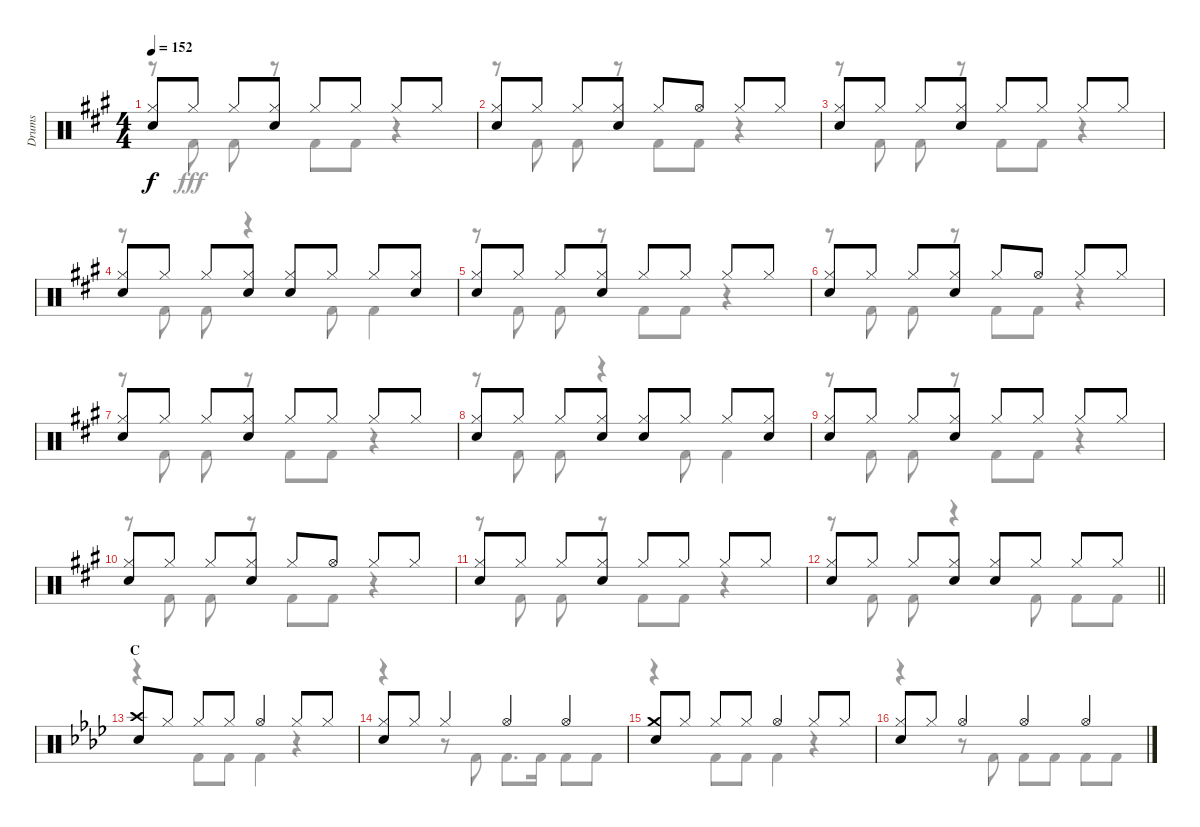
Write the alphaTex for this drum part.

\track ("Drums" "Drums") {instrument percussion}
\staff {score}
\articulation defaults
\voice
\ts (4 4)
\tempo 152
\clef neutral
\ks a
("Hi-Hat (closed)" "Snare (hit) 2").8{dy f} "Hi-Hat (closed)".8 "Hi-Hat (closed)".8 ("Hi-Hat (closed)" "Snare (hit) 2").8 "Hi-Hat (closed)".8 "Hi-Hat (closed)".8 "Hi-Hat (closed)".8 "Hi-Hat (closed)".8 |
("Hi-Hat (closed)" "Snare (hit) 2").8 "Hi-Hat (closed)".8 "Hi-Hat (closed)".8 ("Hi-Hat (closed)" "Snare (hit) 2").8 "Hi-Hat (closed)".8 "Hi-Hat (open)".8 "Hi-Hat (closed)".8 "Hi-Hat (closed)".8 |
("Hi-Hat (closed)" "Snare (hit) 2").8 "Hi-Hat (closed)".8 "Hi-Hat (closed)".8 ("Hi-Hat (closed)" "Snare (hit) 2").8 "Hi-Hat (closed)".8 "Hi-Hat (closed)".8 "Hi-Hat (closed)".8 "Hi-Hat (closed)".8 |
("Hi-Hat (closed)" "Snare (hit) 2").8 "Hi-Hat (closed)".8 "Hi-Hat (closed)".8 ("Hi-Hat (closed)" "Snare (hit) 2").8 ("Hi-Hat (closed)" "Snare (hit) 2").8 "Hi-Hat (closed)".8 "Hi-Hat (closed)".8 ("Hi-Hat (closed)" "Snare (hit) 2").8 |
("Hi-Hat (closed)" "Snare (hit) 2").8 "Hi-Hat (closed)".8 "Hi-Hat (closed)".8 ("Hi-Hat (closed)" "Snare (hit) 2").8 "Hi-Hat (closed)".8 "Hi-Hat (closed)".8 "Hi-Hat (closed)".8 "Hi-Hat (closed)".8 |
("Hi-Hat (closed)" "Snare (hit) 2").8 "Hi-Hat (closed)".8 "Hi-Hat (closed)".8 ("Hi-Hat (closed)" "Snare (hit) 2").8 "Hi-Hat (closed)".8 "Hi-Hat (open)".8 "Hi-Hat (closed)".8 "Hi-Hat (closed)".8 |
("Hi-Hat (closed)" "Snare (hit) 2").8 "Hi-Hat (closed)".8 "Hi-Hat (closed)".8 ("Hi-Hat (closed)" "Snare (hit) 2").8 "Hi-Hat (closed)".8 "Hi-Hat (closed)".8 "Hi-Hat (closed)".8 "Hi-Hat (closed)".8 |
("Hi-Hat (closed)" "Snare (hit) 2").8 "Hi-Hat (closed)".8 "Hi-Hat (closed)".8 ("Hi-Hat (closed)" "Snare (hit) 2").8 ("Hi-Hat (closed)" "Snare (hit) 2").8 "Hi-Hat (closed)".8 "Hi-Hat (closed)".8 ("Hi-Hat (closed)" "Snare (hit) 2").8 |
("Hi-Hat (closed)" "Snare (hit) 2").8 "Hi-Hat (closed)".8 "Hi-Hat (closed)".8 ("Hi-Hat (closed)" "Snare (hit) 2").8 "Hi-Hat (closed)".8 "Hi-Hat (closed)".8 "Hi-Hat (closed)".8 "Hi-Hat (closed)".8 |
("Hi-Hat (closed)" "Snare (hit) 2").8 "Hi-Hat (closed)".8 "Hi-Hat (closed)".8 ("Hi-Hat (closed)" "Snare (hit) 2").8 "Hi-Hat (closed)".8 "Hi-Hat (open)".8 "Hi-Hat (closed)".8 "Hi-Hat (closed)".8 |
("Hi-Hat (closed)" "Snare (hit) 2").8 "Hi-Hat (closed)".8 "Hi-Hat (closed)".8 ("Hi-Hat (closed)" "Snare (hit) 2").8 "Hi-Hat (closed)".8 "Hi-Hat (closed)".8 "Hi-Hat (closed)".8 "Hi-Hat (closed)".8 |
\barLineRight lightlight
("Hi-Hat (closed)" "Snare (hit) 2").8 "Hi-Hat (closed)".8 "Hi-Hat (closed)".8 ("Hi-Hat (closed)" "Snare (hit) 2").8 ("Hi-Hat (closed)" "Snare (hit) 2").8 "Hi-Hat (closed)".8 "Hi-Hat (closed)".8 "Hi-Hat (closed)".8 |
\section ("" "C")
\ks ab
("Crash high (hit)" "Snare (hit) 2").8 "Hi-Hat (closed)".8 "Hi-Hat (closed)".8 "Hi-Hat (closed)".8 "Hi-Hat (open)".4 "Hi-Hat (closed)".8 "Hi-Hat (closed)".8 |
("Hi-Hat (closed)" "Snare (hit) 2").8 "Hi-Hat (closed)".8 "Hi-Hat (closed)".4 "Hi-Hat (open)".4 "Hi-Hat (open)".4 |
("Crash medium (hit)" "Snare (hit) 2").8 "Hi-Hat (closed)".8 "Hi-Hat (closed)".8 "Hi-Hat (closed)".8 "Hi-Hat (open)".4 "Hi-Hat (closed)".8 "Hi-Hat (closed)".8 |
("Hi-Hat (closed)" "Snare (hit) 2").8 "Hi-Hat (closed)".8 "Hi-Hat (open)".4 "Hi-Hat (open)".4 "Hi-Hat (open)".4
\voice
\clef neutral
\ottava regular
\simile none
\ks a
r.8{dy fff} "Kick (hit) 2".8 "Kick (hit) 2".8 r.8 "Kick (hit) 2".8 "Kick (hit) 2".8 r.4 |
r.8 "Kick (hit) 2".8 "Kick (hit) 2".8 r.8 "Kick (hit) 2".8 "Kick (hit) 2".8 r.4 |
r.8 "Kick (hit) 2".8 "Kick (hit) 2".8 r.8 "Kick (hit) 2".8 "Kick (hit) 2".8 r.4 |
r.8 "Kick (hit) 2".8 "Kick (hit) 2".8 r.4 "Kick (hit) 2".8 "Kick (hit) 2".4 |
r.8 "Kick (hit) 2".8 "Kick (hit) 2".8 r.8 "Kick (hit) 2".8 "Kick (hit) 2".8 r.4 |
r.8 "Kick (hit) 2".8 "Kick (hit) 2".8 r.8 "Kick (hit) 2".8 "Kick (hit) 2".8 r.4 |
r.8 "Kick (hit) 2".8 "Kick (hit) 2".8 r.8 "Kick (hit) 2".8 "Kick (hit) 2".8 r.4 |
r.8 "Kick (hit) 2".8 "Kick (hit) 2".8 r.4 "Kick (hit) 2".8 "Kick (hit) 2".4 |
r.8 "Kick (hit) 2".8 "Kick (hit) 2".8 r.8 "Kick (hit) 2".8 "Kick (hit) 2".8 r.4 |
r.8 "Kick (hit) 2".8 "Kick (hit) 2".8 r.8 "Kick (hit) 2".8 "Kick (hit) 2".8 r.4 |
r.8 "Kick (hit) 2".8 "Kick (hit) 2".8 r.8 "Kick (hit) 2".8 "Kick (hit) 2".8 r.4 |
\barLineRight lightlight
r.8 "Kick (hit) 2".8 "Kick (hit) 2".8 r.4 "Kick (hit) 2".8 "Kick (hit) 2".8 "Kick (hit) 2".8 |
\ks ab
r.4 "Kick (hit) 2".8 "Kick (hit) 2".8 "Kick (hit) 2".4 r.4 |
r.4 r.8 "Kick (hit) 2".8 "Kick (hit) 2".8{d} "Kick (hit) 2".16 "Kick (hit) 2".8 "Kick (hit) 2".8 |
r.4 "Kick (hit) 2".8 "Kick (hit) 2".8 "Kick (hit) 2".4 r.4 |
r.4 r.8 "Kick (hit) 2".8 "Kick (hit) 2".8 "Kick (hit) 2".8 "Kick (hit) 2".8 "Kick (hit) 2".8
